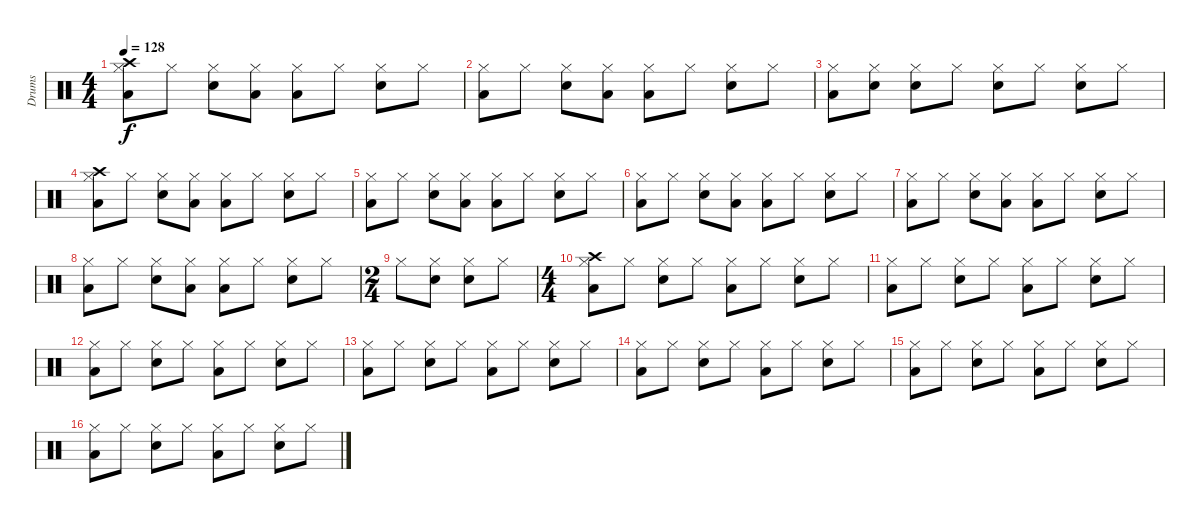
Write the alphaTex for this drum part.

\track ("Drums" "Drums") {instrument percussion}
\staff {score}
\articulation defaults
\ts (4 4)
\tempo 128
\clef neutral
\ks c
("Hi-Hat (closed)" "Low Tom (hit)" "Crash high (hit)").8{dy f} "Hi-Hat (closed)".8 ("Hi-Hat (closed)" "Snare (hit) 2").8 ("Hi-Hat (closed)" "Low Tom (hit)").8 ("Hi-Hat (closed)" "Low Tom (hit)").8 "Hi-Hat (closed)".8 ("Hi-Hat (closed)" "Snare (hit) 2").8 "Hi-Hat (closed)".8 |
("Hi-Hat (closed)" "Low Tom (hit)").8 "Hi-Hat (closed)".8 ("Hi-Hat (closed)" "Snare (hit) 2").8 ("Hi-Hat (closed)" "Low Tom (hit)").8 ("Hi-Hat (closed)" "Low Tom (hit)").8 "Hi-Hat (closed)".8 ("Hi-Hat (closed)" "Snare (hit) 2").8 "Hi-Hat (closed)".8 |
("Hi-Hat (closed)" "Low Tom (hit)").8 ("Hi-Hat (closed)" "Snare (hit) 2").8 ("Hi-Hat (closed)" "Snare (hit) 2").8 "Hi-Hat (closed)".8 ("Hi-Hat (closed)" "Snare (hit) 2").8 "Hi-Hat (closed)".8 ("Hi-Hat (closed)" "Snare (hit) 2").8 "Hi-Hat (closed)".8 |
("Hi-Hat (closed)" "Low Tom (hit)" "Crash high (hit)").8 "Hi-Hat (closed)".8 ("Hi-Hat (closed)" "Snare (hit) 2").8 ("Hi-Hat (closed)" "Low Tom (hit)").8 ("Hi-Hat (closed)" "Low Tom (hit)").8 "Hi-Hat (closed)".8 ("Hi-Hat (closed)" "Snare (hit) 2").8 "Hi-Hat (closed)".8 |
("Hi-Hat (closed)" "Low Tom (hit)").8 "Hi-Hat (closed)".8 ("Hi-Hat (closed)" "Snare (hit) 2").8 ("Hi-Hat (closed)" "Low Tom (hit)").8 ("Hi-Hat (closed)" "Low Tom (hit)").8 "Hi-Hat (closed)".8 ("Hi-Hat (closed)" "Snare (hit) 2").8 "Hi-Hat (closed)".8 |
("Hi-Hat (closed)" "Low Tom (hit)").8 "Hi-Hat (closed)".8 ("Hi-Hat (closed)" "Snare (hit) 2").8 ("Hi-Hat (closed)" "Low Tom (hit)").8 ("Hi-Hat (closed)" "Low Tom (hit)").8 "Hi-Hat (closed)".8 ("Hi-Hat (closed)" "Snare (hit) 2").8 "Hi-Hat (closed)".8 |
("Hi-Hat (closed)" "Low Tom (hit)").8 "Hi-Hat (closed)".8 ("Hi-Hat (closed)" "Snare (hit) 2").8 ("Hi-Hat (closed)" "Low Tom (hit)").8 ("Hi-Hat (closed)" "Low Tom (hit)").8 "Hi-Hat (closed)".8 ("Hi-Hat (closed)" "Snare (hit) 2").8 "Hi-Hat (closed)".8 |
("Hi-Hat (closed)" "Low Tom (hit)").8 "Hi-Hat (closed)".8 ("Hi-Hat (closed)" "Snare (hit) 2").8 ("Hi-Hat (closed)" "Low Tom (hit)").8 ("Hi-Hat (closed)" "Low Tom (hit)").8 "Hi-Hat (closed)".8 ("Hi-Hat (closed)" "Snare (hit) 2").8 "Hi-Hat (closed)".8 |
\ts (2 4)
"Hi-Hat (closed)".8 ("Hi-Hat (closed)" "Snare (hit) 2").8 ("Hi-Hat (closed)" "Snare (hit) 2").8 "Hi-Hat (closed)".8 |
\ts (4 4)
("Hi-Hat (closed)" "Low Tom (hit)" "Crash high (hit)").8 "Hi-Hat (closed)".8 ("Hi-Hat (closed)" "Snare (hit) 2").8 "Hi-Hat (closed)".8 ("Hi-Hat (closed)" "Low Tom (hit)").8 "Hi-Hat (closed)".8 ("Hi-Hat (closed)" "Snare (hit) 2").8 "Hi-Hat (closed)".8 |
("Hi-Hat (closed)" "Low Tom (hit)").8 "Hi-Hat (closed)".8 ("Hi-Hat (closed)" "Snare (hit) 2").8 "Hi-Hat (closed)".8 ("Hi-Hat (closed)" "Low Tom (hit)").8 "Hi-Hat (closed)".8 ("Hi-Hat (closed)" "Snare (hit) 2").8 "Hi-Hat (closed)".8 |
("Hi-Hat (closed)" "Low Tom (hit)").8 "Hi-Hat (closed)".8 ("Hi-Hat (closed)" "Snare (hit) 2").8 "Hi-Hat (closed)".8 ("Hi-Hat (closed)" "Low Tom (hit)").8 "Hi-Hat (closed)".8 ("Hi-Hat (closed)" "Snare (hit) 2").8 "Hi-Hat (closed)".8 |
("Hi-Hat (closed)" "Low Tom (hit)").8 "Hi-Hat (closed)".8 ("Hi-Hat (closed)" "Snare (hit) 2").8 "Hi-Hat (closed)".8 ("Hi-Hat (closed)" "Low Tom (hit)").8 "Hi-Hat (closed)".8 ("Hi-Hat (closed)" "Snare (hit) 2").8 "Hi-Hat (closed)".8 |
("Hi-Hat (closed)" "Low Tom (hit)").8 "Hi-Hat (closed)".8 ("Hi-Hat (closed)" "Snare (hit) 2").8 "Hi-Hat (closed)".8 ("Hi-Hat (closed)" "Low Tom (hit)").8 "Hi-Hat (closed)".8 ("Hi-Hat (closed)" "Snare (hit) 2").8 "Hi-Hat (closed)".8 |
("Hi-Hat (closed)" "Low Tom (hit)").8 "Hi-Hat (closed)".8 ("Hi-Hat (closed)" "Snare (hit) 2").8 "Hi-Hat (closed)".8 ("Hi-Hat (closed)" "Low Tom (hit)").8 "Hi-Hat (closed)".8 ("Hi-Hat (closed)" "Snare (hit) 2").8 "Hi-Hat (closed)".8 |
("Hi-Hat (closed)" "Low Tom (hit)").8 "Hi-Hat (closed)".8 ("Hi-Hat (closed)" "Snare (hit) 2").8 "Hi-Hat (closed)".8 ("Hi-Hat (closed)" "Low Tom (hit)").8 "Hi-Hat (closed)".8 ("Hi-Hat (closed)" "Snare (hit) 2").8 "Hi-Hat (closed)".8
